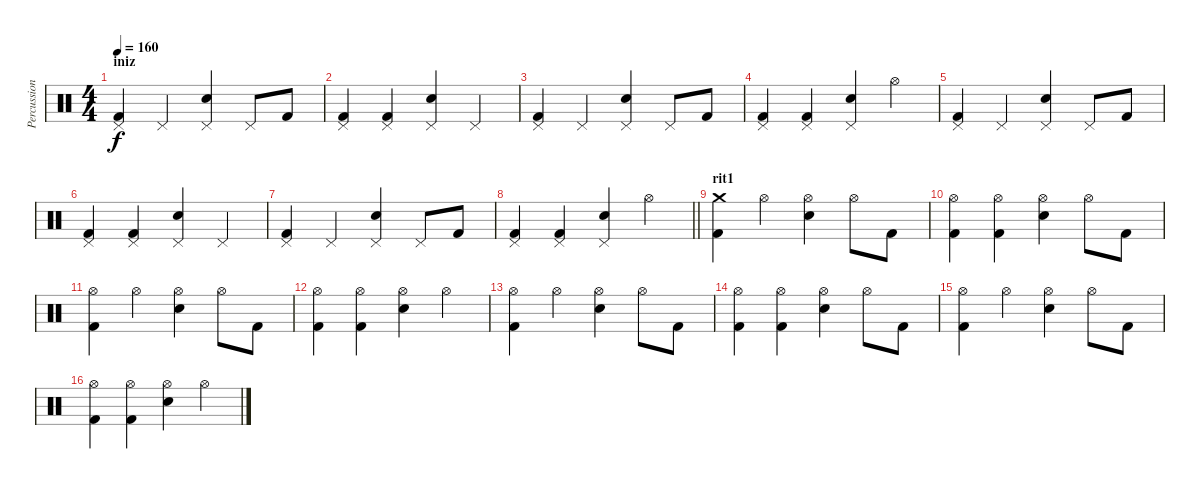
\track ("Percussioni" "Percussion") {instrument percussion}
\staff {score}
\articulation defaults
\ts (4 4)
\section ("" "iniz")
\tempo 160
\clef neutral
\ks c
("Pedal Hi-Hat (hit)" "Kick (hit) 2").4{dy f} "Pedal Hi-Hat (hit)".4 ("Pedal Hi-Hat (hit)" "Snare (hit) 2").4 "Pedal Hi-Hat (hit)".8 "Kick (hit) 2".8 |
("Pedal Hi-Hat (hit)" "Kick (hit) 2").4 ("Pedal Hi-Hat (hit)" "Kick (hit) 2").4 ("Pedal Hi-Hat (hit)" "Snare (hit) 2").4 "Pedal Hi-Hat (hit)".4 |
("Pedal Hi-Hat (hit)" "Kick (hit) 2").4 "Pedal Hi-Hat (hit)".4 ("Pedal Hi-Hat (hit)" "Snare (hit) 2").4 "Pedal Hi-Hat (hit)".8 "Kick (hit) 2".8 |
("Pedal Hi-Hat (hit)" "Kick (hit) 2").4 ("Pedal Hi-Hat (hit)" "Kick (hit) 2").4 ("Pedal Hi-Hat (hit)" "Snare (hit) 2").4 "Hi-Hat (open)".4 |
("Pedal Hi-Hat (hit)" "Kick (hit) 2").4 "Pedal Hi-Hat (hit)".4 ("Pedal Hi-Hat (hit)" "Snare (hit) 2").4 "Pedal Hi-Hat (hit)".8 "Kick (hit) 2".8 |
("Pedal Hi-Hat (hit)" "Kick (hit) 2").4 ("Pedal Hi-Hat (hit)" "Kick (hit) 2").4 ("Pedal Hi-Hat (hit)" "Snare (hit) 2").4 "Pedal Hi-Hat (hit)".4 |
("Pedal Hi-Hat (hit)" "Kick (hit) 2").4 "Pedal Hi-Hat (hit)".4 ("Pedal Hi-Hat (hit)" "Snare (hit) 2").4 "Pedal Hi-Hat (hit)".8 "Kick (hit) 2".8 |
\barLineRight lightlight
("Pedal Hi-Hat (hit)" "Kick (hit) 2").4 ("Pedal Hi-Hat (hit)" "Kick (hit) 2").4 ("Pedal Hi-Hat (hit)" "Snare (hit) 2").4 "Hi-Hat (open)".4 |
\section ("" "rit1")
("Crash medium (hit)" "Kick (hit) 2").4 "Hi-Hat (open)".4 ("Hi-Hat (open)" "Snare (hit) 2").4 "Hi-Hat (open)".8 "Kick (hit) 2".8 |
("Hi-Hat (open)" "Kick (hit) 2").4 ("Hi-Hat (open)" "Kick (hit) 2").4 ("Hi-Hat (open)" "Snare (hit) 2").4 "Hi-Hat (open)".8 "Kick (hit) 2".8 |
("Hi-Hat (open)" "Kick (hit) 2").4 "Hi-Hat (open)".4 ("Hi-Hat (open)" "Snare (hit) 2").4 "Hi-Hat (open)".8 "Kick (hit) 2".8 |
("Hi-Hat (open)" "Kick (hit) 2").4 ("Hi-Hat (open)" "Kick (hit) 2").4 ("Hi-Hat (open)" "Snare (hit) 2").4 "Hi-Hat (open)".4 |
("Hi-Hat (open)" "Kick (hit) 2").4 "Hi-Hat (open)".4 ("Hi-Hat (open)" "Snare (hit) 2").4 "Hi-Hat (open)".8 "Kick (hit) 2".8 |
("Hi-Hat (open)" "Kick (hit) 2").4 ("Hi-Hat (open)" "Kick (hit) 2").4 ("Hi-Hat (open)" "Snare (hit) 2").4 "Hi-Hat (open)".8 "Kick (hit) 2".8 |
("Hi-Hat (open)" "Kick (hit) 2").4 "Hi-Hat (open)".4 ("Hi-Hat (open)" "Snare (hit) 2").4 "Hi-Hat (open)".8 "Kick (hit) 2".8 |
("Hi-Hat (open)" "Kick (hit) 2").4 ("Hi-Hat (open)" "Kick (hit) 2").4 ("Hi-Hat (open)" "Snare (hit) 2").4 "Hi-Hat (open)".4
